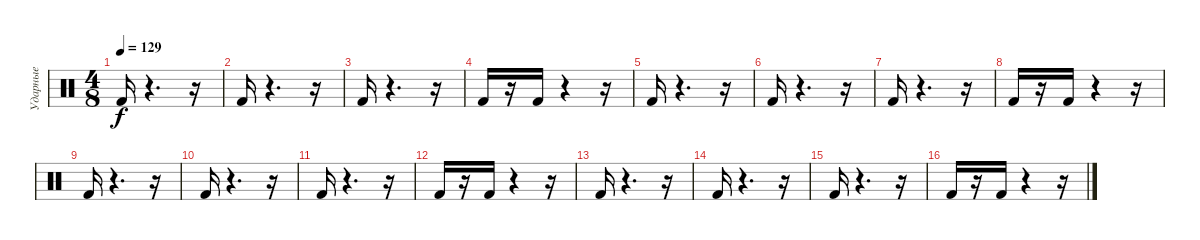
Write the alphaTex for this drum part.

\track ("Ударные" "Ударные") {instrument percussion}
\staff {score}
\articulation defaults
\ts (4 8)
\tempo 129
\clef neutral
\ks c "Kick (hit) 2".16{dy f}
r.4{d} r.16 |
"Kick (hit) 2".16 r.4{d} r.16 |
"Kick (hit) 2".16 r.4{d} r.16 |
"Kick (hit) 2".16 r.16 "Kick (hit) 2".16 r.4 r.16 |
"Kick (hit) 2".16 r.4{d} r.16 |
"Kick (hit) 2".16 r.4{d} r.16 |
"Kick (hit) 2".16 r.4{d} r.16 |
"Kick (hit) 2".16 r.16 "Kick (hit) 2".16 r.4 r.16 |
"Kick (hit) 2".16 r.4{d} r.16 |
"Kick (hit) 2".16 r.4{d} r.16 |
"Kick (hit) 2".16 r.4{d} r.16 |
"Kick (hit) 2".16 r.16 "Kick (hit) 2".16 r.4 r.16 |
"Kick (hit) 2".16 r.4{d} r.16 |
"Kick (hit) 2".16 r.4{d} r.16 |
"Kick (hit) 2".16 r.4{d} r.16 |
"Kick (hit) 2".16 r.16 "Kick (hit) 2".16 r.4 r.16
